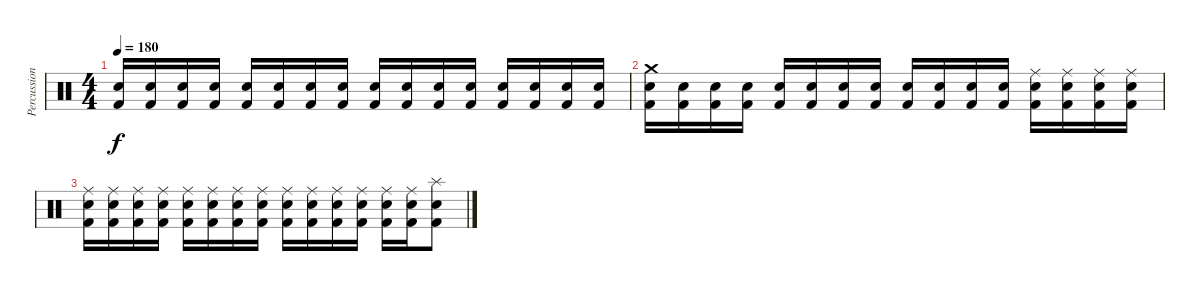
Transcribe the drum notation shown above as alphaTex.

\track ("Percussion" "Percussion") {instrument percussion}
\staff {score}
\articulation defaults
\ts (4 4)
\tempo 180
\clef neutral
\ks c
("Snare (hit) 2" "Kick (hit) 2").16{dy f} ("Electric Snare (hit)" "Kick (hit) 2").16 ("Snare (hit) 2" "Kick (hit) 2").16 ("Electric Snare (hit)" "Kick (hit) 2").16 ("Snare (hit) 2" "Kick (hit) 2").16 ("Electric Snare (hit)" "Kick (hit) 2").16 ("Snare (hit) 2" "Kick (hit) 2").16 ("Electric Snare (hit)" "Kick (hit) 2").16 ("Snare (hit) 2" "Kick (hit) 2").16 ("Electric Snare (hit)" "Kick (hit) 2").16 ("Snare (hit) 2" "Kick (hit) 2").16 ("Electric Snare (hit)" "Kick (hit) 2").16 ("Snare (hit) 2" "Kick (hit) 2").16 ("Electric Snare (hit)" "Kick (hit) 2").16 ("Snare (hit) 2" "Kick (hit) 2").16 ("Electric Snare (hit)" "Kick (hit) 2").16 |
("Crash medium (hit)" "Snare (hit) 2" "Kick (hit) 2").16 ("Electric Snare (hit)" "Kick (hit) 2").16 ("Snare (hit) 2" "Kick (hit) 2").16 ("Electric Snare (hit)" "Kick (hit) 2").16 ("Snare (hit) 2" "Kick (hit) 2").16 ("Electric Snare (hit)" "Kick (hit) 2").16 ("Snare (hit) 2" "Kick (hit) 2").16 ("Electric Snare (hit)" "Kick (hit) 2").16 ("Snare (hit) 2" "Kick (hit) 2").16 ("Electric Snare (hit)" "Kick (hit) 2").16 ("Snare (hit) 2" "Kick (hit) 2").16 ("Electric Snare (hit)" "Kick (hit) 2").16 ("Ride (middle)" "Snare (hit) 2" "Kick (hit) 2").16 ("Ride (middle)" "Electric Snare (hit)" "Kick (hit) 2").16 ("Ride (middle)" "Snare (hit) 2" "Kick (hit) 2").16 ("Ride (middle)" "Electric Snare (hit)" "Kick (hit) 2").16 |
("Ride (middle)" "Snare (hit) 2" "Kick (hit) 2").16 ("Ride (middle)" "Electric Snare (hit)" "Kick (hit) 2").16 ("Ride (middle)" "Snare (hit) 2" "Kick (hit) 2").16 ("Ride (middle)" "Electric Snare (hit)" "Kick (hit) 2").16 ("Ride (middle)" "Snare (hit) 2" "Kick (hit) 2").16 ("Ride (middle)" "Electric Snare (hit)" "Kick (hit) 2").16 ("Ride (middle)" "Snare (hit) 2" "Kick (hit) 2").16 ("Ride (middle)" "Electric Snare (hit)" "Kick (hit) 2").16 ("Ride (middle)" "Snare (hit) 2" "Kick (hit) 2").16 ("Ride (middle)" "Electric Snare (hit)" "Kick (hit) 2").16 ("Ride (middle)" "Snare (hit) 2" "Kick (hit) 2").16 ("Ride (middle)" "Electric Snare (hit)" "Kick (hit) 2").16 ("Ride (middle)" "Snare (hit) 2" "Kick (hit) 2").16 ("Ride (middle)" "Electric Snare (hit)" "Kick (hit) 2").16 ("Splash (hit)" "Snare (hit) 2" "Kick (hit) 2").8
